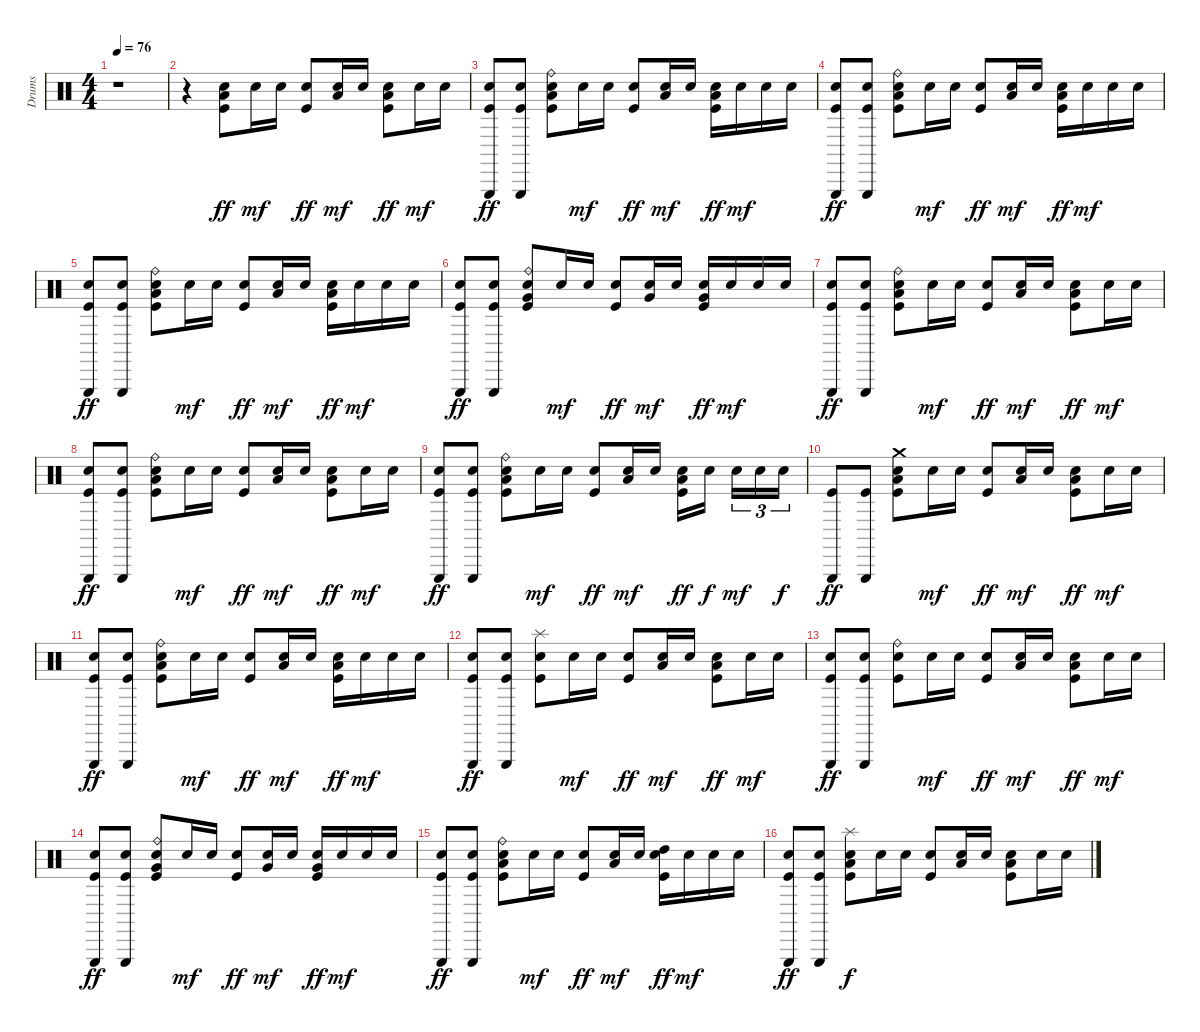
\track ("Drums" "Drums") {instrument percussion}
\staff {score}
\articulation defaults
\ts (4 4)
\tempo 76
\clef neutral
\ks c
r.1{dy ff} |
r.4 ("Snare (hit) 2" "Kick (hit)" "Low Tom (hit)").8 "Snare (hit) 2".16{dy mf} "Snare (hit) 2".16 ("Snare (hit) 2" "Kick (hit)").8{dy ff} ("Snare (hit) 2" "Low Tom (hit)").16{dy mf} "Snare (hit) 2".16 ("Snare (hit) 2" "Kick (hit)" "Low Tom (hit)").8{dy ff} "Snare (hit) 2".16{dy mf} "Snare (hit) 2".16 |
("Snare (hit) 2" "Triangle (hit)" "Kick (hit)").8{dy ff} ("Snare (hit) 2" "Triangle (hit)" "Kick (hit)").8 ("Snare (hit) 2" "Ride (bell)" "Kick (hit)" "Low Tom (hit)").8 "Snare (hit) 2".16{dy mf} "Snare (hit) 2".16 ("Snare (hit) 2" "Kick (hit)").8{dy ff} ("Snare (hit) 2" "Low Tom (hit)").16{dy mf} "Snare (hit) 2".16 ("Snare (hit) 2" "Kick (hit)" "Low Tom (hit)").16{dy ff} "Snare (hit) 2".16{dy mf} "Snare (hit) 2".16 "Snare (hit) 2".16 |
("Snare (hit) 2" "Triangle (hit)" "Kick (hit)").8{dy ff} ("Snare (hit) 2" "Triangle (hit)" "Kick (hit)").8 ("Snare (hit) 2" "Ride (bell)" "Kick (hit)" "Low Tom (hit)").8 "Snare (hit) 2".16{dy mf} "Snare (hit) 2".16 ("Snare (hit) 2" "Kick (hit)").8{dy ff} ("Snare (hit) 2" "Low Tom (hit)").16{dy mf} "Snare (hit) 2".16 ("Snare (hit) 2" "Kick (hit)" "Low Tom (hit)").16{dy ff} "Snare (hit) 2".16{dy mf} "Snare (hit) 2".16 "Snare (hit) 2".16 |
("Snare (hit) 2" "Triangle (hit)" "Kick (hit)").8{dy ff} ("Snare (hit) 2" "Triangle (hit)" "Kick (hit)").8 ("Snare (hit) 2" "Ride (bell)" "Kick (hit)" "Low Tom (hit)").8 "Snare (hit) 2".16{dy mf} "Snare (hit) 2".16 ("Snare (hit) 2" "Kick (hit)").8{dy ff} ("Snare (hit) 2" "Low Tom (hit)").16{dy mf} "Snare (hit) 2".16 ("Snare (hit) 2" "Kick (hit)" "Low Tom (hit)").16{dy ff} "Snare (hit) 2".16{dy mf} "Snare (hit) 2".16 "Snare (hit) 2".16 |
("Snare (hit) 2" "Triangle (hit)" "Kick (hit)").8{dy ff} ("Snare (hit) 2" "Triangle (hit)" "Kick (hit)").8 ("Snare (hit) 2" "Ride (bell)" "Kick (hit)" "Very Low Tom (hit)").8 "Snare (hit) 2".16{dy mf} "Snare (hit) 2".16 ("Snare (hit) 2" "Kick (hit)").8{dy ff} ("Snare (hit) 2" "Very Low Tom (hit)").16{dy mf} "Snare (hit) 2".16 ("Snare (hit) 2" "Kick (hit)" "Very Low Tom (hit)").16{dy ff} "Snare (hit) 2".16{dy mf} "Snare (hit) 2".16 "Snare (hit) 2".16 |
("Snare (hit) 2" "Triangle (hit)" "Kick (hit)").8{dy ff} ("Snare (hit) 2" "Triangle (hit)" "Kick (hit)").8 ("Snare (hit) 2" "Ride (bell)" "Kick (hit)" "Low Floor Tom (hit)").8 "Snare (hit) 2".16{dy mf} "Snare (hit) 2".16 ("Snare (hit) 2" "Kick (hit)").8{dy ff} ("Snare (hit) 2" "Low Floor Tom (hit)").16{dy mf} "Snare (hit) 2".16 ("Snare (hit) 2" "Kick (hit)" "Low Tom (hit)").8{dy ff} "Snare (hit) 2".16{dy mf} "Snare (hit) 2".16 |
("Snare (hit) 2" "Triangle (hit)" "Kick (hit)").8{dy ff} ("Snare (hit) 2" "Triangle (hit)" "Kick (hit)").8 ("Snare (hit) 2" "Ride (bell)" "Kick (hit)" "Low Tom (hit)").8 "Snare (hit) 2".16{dy mf} "Snare (hit) 2".16 ("Snare (hit) 2" "Kick (hit)").8{dy ff} ("Snare (hit) 2" "Low Tom (hit)").16{dy mf} "Snare (hit) 2".16 ("Snare (hit) 2" "Kick (hit)" "Low Tom (hit)").8{dy ff} "Snare (hit) 2".16{dy mf} "Snare (hit) 2".16 |
("Snare (hit) 2" "Triangle (hit)" "Kick (hit)").8{dy ff} ("Snare (hit) 2" "Triangle (hit)" "Kick (hit)").8 ("Snare (hit) 2" "Ride (bell)" "Kick (hit)" "Low Tom (hit)").8 "Snare (hit) 2".16{dy mf} "Snare (hit) 2".16 ("Snare (hit) 2" "Kick (hit)").8{dy ff} ("Snare (hit) 2" "Low Tom (hit)").16{dy mf} "Snare (hit) 2".16 ("Snare (hit) 2" "Kick (hit)" "Low Tom (hit)").16{dy ff} "Snare (hit) 2".16{dy f} "Snare (hit) 2".16{tu (3 2) dy mf} "Snare (hit) 2".16{tu (3 2)} "Snare (hit) 2".16{tu (3 2) dy f} |
("Triangle (hit)" "Kick (hit)").8{dy ff} ("Triangle (hit)" "Kick (hit)").8 ("Snare (hit) 2" "Crash medium (hit)" "Kick (hit)" "Low Tom (hit)").8 "Snare (hit) 2".16{dy mf} "Snare (hit) 2".16 ("Snare (hit) 2" "Kick (hit)").8{dy ff} ("Snare (hit) 2" "Low Tom (hit)").16{dy mf} "Snare (hit) 2".16 ("Snare (hit) 2" "Kick (hit)" "Low Tom (hit)").8{dy ff} "Snare (hit) 2".16{dy mf} "Snare (hit) 2".16 |
("Snare (hit) 2" "Triangle (hit)" "Kick (hit)").8{dy ff} ("Snare (hit) 2" "Triangle (hit)" "Kick (hit)").8 ("Snare (hit) 2" "Ride (bell)" "Kick (hit)" "Low Tom (hit)").8 "Snare (hit) 2".16{dy mf} "Snare (hit) 2".16 ("Snare (hit) 2" "Kick (hit)").8{dy ff} ("Snare (hit) 2" "Low Tom (hit)").16{dy mf} "Snare (hit) 2".16 ("Snare (hit) 2" "Kick (hit)" "Low Tom (hit)").16{dy ff} "Snare (hit) 2".16{dy mf} "Snare (hit) 2".16 "Snare (hit) 2".16 |
("Snare (hit) 2" "Triangle (hit)" "Kick (hit)").8{dy ff} ("Snare (hit) 2" "Triangle (hit)" "Kick (hit)").8 ("Snare (hit) 2" "Splash (hit)" "Kick (hit)").8 "Snare (hit) 2".16{dy mf} "Snare (hit) 2".16 ("Snare (hit) 2" "Kick (hit)").8{dy ff} ("Snare (hit) 2" "Low Tom (hit)").16{dy mf} "Snare (hit) 2".16 ("Snare (hit) 2" "Kick (hit)" "Low Tom (hit)").8{dy ff} "Snare (hit) 2".16{dy mf} "Snare (hit) 2".16 |
("Snare (hit) 2" "Triangle (hit)" "Kick (hit)").8{dy ff} ("Snare (hit) 2" "Triangle (hit)" "Kick (hit)").8 ("Snare (hit) 2" "Ride (bell)" "Kick (hit)").8 "Snare (hit) 2".16{dy mf} "Snare (hit) 2".16 ("Snare (hit) 2" "Kick (hit)").8{dy ff} ("Snare (hit) 2" "Low Tom (hit)").16{dy mf} "Snare (hit) 2".16 ("Snare (hit) 2" "Kick (hit)" "Low Tom (hit)").8{dy ff} "Snare (hit) 2".16{dy mf} "Snare (hit) 2".16 |
("Snare (hit) 2" "Triangle (hit)" "Kick (hit)").8{dy ff} ("Snare (hit) 2" "Triangle (hit)" "Kick (hit)").8 ("Snare (hit) 2" "Ride (bell)" "Kick (hit)" "Very Low Tom (hit)").8 "Snare (hit) 2".16{dy mf} "Snare (hit) 2".16 ("Snare (hit) 2" "Kick (hit)").8{dy ff} ("Snare (hit) 2" "Very Low Tom (hit)").16{dy mf} "Snare (hit) 2".16 ("Snare (hit) 2" "Kick (hit)" "Very Low Tom (hit)").16{dy ff} "Snare (hit) 2".16{dy mf} "Snare (hit) 2".16 "Snare (hit) 2".16 |
("Snare (hit) 2" "Triangle (hit)" "Kick (hit)").8{dy ff} ("Snare (hit) 2" "Triangle (hit)" "Kick (hit)").8 ("Snare (hit) 2" "Ride (bell)" "Kick (hit)" "Low Floor Tom (hit)").8 "Snare (hit) 2".16{dy mf} "Snare (hit) 2".16 ("Snare (hit) 2" "Kick (hit)").8{dy ff} ("Snare (hit) 2" "Low Floor Tom (hit)").16{dy mf} "Snare (hit) 2".16 ("Snare (hit) 2" "Kick (hit)" "High Tom (hit)").16{dy ff} "Snare (hit) 2".16{dy mf} "Snare (hit) 2".16 "Snare (hit) 2".16 |
("Snare (hit) 2" "Triangle (hit)" "Kick (hit)").8{dy ff} ("Snare (hit) 2" "Triangle (hit)" "Kick (hit)").8 ("Snare (hit) 2" "Splash (hit)" "Kick (hit)" "Low Tom (hit)").8{dy f} "Snare (hit) 2".16 "Snare (hit) 2".16 ("Snare (hit) 2" "Kick (hit)").8 ("Snare (hit) 2" "Low Tom (hit)").16 "Snare (hit) 2".16 ("Snare (hit) 2" "Kick (hit)" "Low Tom (hit)").8 "Snare (hit) 2".16 "Snare (hit) 2".16
